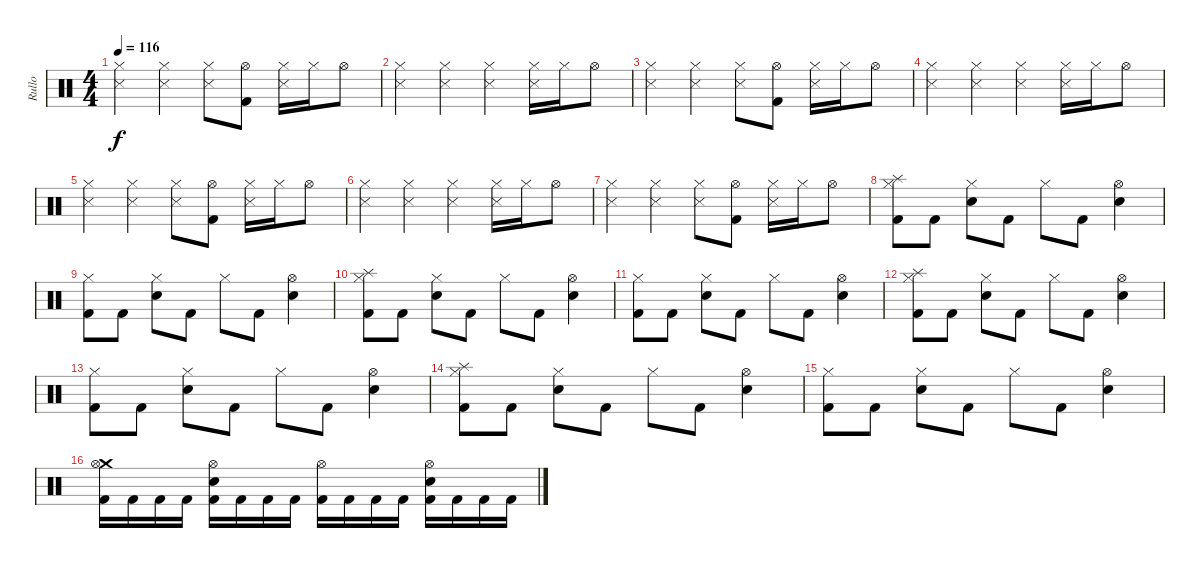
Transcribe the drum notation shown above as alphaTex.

\track ("Rullo" "Rullo") {instrument percussion}
\staff {score}
\articulation defaults
\ts (4 4)
\tempo 116
\clef neutral
\ks c
("Hi-Hat (closed)" "Snare (side stick) 3").4{dy f} ("Hi-Hat (closed)" "Snare (side stick) 3").4 ("Hi-Hat (closed)" "Snare (side stick) 3").8 ("Hi-Hat (open)" "Kick (hit) 2").8 ("Hi-Hat (closed)" "Snare (side stick) 3").16 "Hi-Hat (closed)".16 "Hi-Hat (open)".8 |
("Hi-Hat (closed)" "Snare (side stick) 3").4 ("Hi-Hat (closed)" "Snare (side stick) 3").4 ("Hi-Hat (closed)" "Snare (side stick) 3").4 ("Hi-Hat (closed)" "Snare (side stick) 3").16 "Hi-Hat (closed)".16 "Hi-Hat (open)".8 |
("Hi-Hat (closed)" "Snare (side stick) 3").4 ("Hi-Hat (closed)" "Snare (side stick) 3").4 ("Hi-Hat (closed)" "Snare (side stick) 3").8 ("Hi-Hat (open)" "Kick (hit) 2").8 ("Hi-Hat (closed)" "Snare (side stick) 3").16 "Hi-Hat (closed)".16 "Hi-Hat (open)".8 |
("Hi-Hat (closed)" "Snare (side stick) 3").4 ("Hi-Hat (closed)" "Snare (side stick) 3").4 ("Hi-Hat (closed)" "Snare (side stick) 3").4 ("Hi-Hat (closed)" "Snare (side stick) 3").16 "Hi-Hat (closed)".16 "Hi-Hat (open)".8 |
("Hi-Hat (closed)" "Snare (side stick) 3").4 ("Hi-Hat (closed)" "Snare (side stick) 3").4 ("Hi-Hat (closed)" "Snare (side stick) 3").8 ("Hi-Hat (open)" "Kick (hit) 2").8 ("Hi-Hat (closed)" "Snare (side stick) 3").16 "Hi-Hat (closed)".16 "Hi-Hat (open)".8 |
("Hi-Hat (closed)" "Snare (side stick) 3").4 ("Hi-Hat (closed)" "Snare (side stick) 3").4 ("Hi-Hat (closed)" "Snare (side stick) 3").4 ("Hi-Hat (closed)" "Snare (side stick) 3").16 "Hi-Hat (closed)".16 "Hi-Hat (open)".8 |
("Hi-Hat (closed)" "Snare (side stick) 3").4 ("Hi-Hat (closed)" "Snare (side stick) 3").4 ("Hi-Hat (closed)" "Snare (side stick) 3").8 ("Hi-Hat (open)" "Kick (hit) 2").8 ("Hi-Hat (closed)" "Snare (side stick) 3").16 "Hi-Hat (closed)".16 "Hi-Hat (open)".8 |
("Splash (hit)" "Hi-Hat (closed)" "Kick (hit) 2").8 "Kick (hit) 2".8 ("Hi-Hat (closed)" "Electric Snare (hit)").8 "Kick (hit) 2".8 "Hi-Hat (closed)".8 "Kick (hit) 2".8 ("Hi-Hat (open)" "Electric Snare (hit)").4 |
("Hi-Hat (closed)" "Kick (hit) 2").8 "Kick (hit) 2".8 ("Hi-Hat (closed)" "Electric Snare (hit)").8 "Kick (hit) 2".8 "Hi-Hat (closed)".8 "Kick (hit) 2".8 ("Hi-Hat (open)" "Electric Snare (hit)").4 |
("Splash (hit)" "Hi-Hat (closed)" "Kick (hit) 2").8 "Kick (hit) 2".8 ("Hi-Hat (closed)" "Electric Snare (hit)").8 "Kick (hit) 2".8 "Hi-Hat (closed)".8 "Kick (hit) 2".8 ("Hi-Hat (open)" "Electric Snare (hit)").4 |
("Hi-Hat (closed)" "Kick (hit) 2").8 "Kick (hit) 2".8 ("Hi-Hat (closed)" "Electric Snare (hit)").8 "Kick (hit) 2".8 "Hi-Hat (closed)".8 "Kick (hit) 2".8 ("Hi-Hat (open)" "Electric Snare (hit)").4 |
("Splash (hit)" "Hi-Hat (closed)" "Kick (hit) 2").8 "Kick (hit) 2".8 ("Hi-Hat (closed)" "Electric Snare (hit)").8 "Kick (hit) 2".8 "Hi-Hat (closed)".8 "Kick (hit) 2".8 ("Hi-Hat (open)" "Electric Snare (hit)").4 |
("Hi-Hat (closed)" "Kick (hit) 2").8 "Kick (hit) 2".8 ("Hi-Hat (closed)" "Electric Snare (hit)").8 "Kick (hit) 2".8 "Hi-Hat (closed)".8 "Kick (hit) 2".8 ("Hi-Hat (open)" "Electric Snare (hit)").4 |
("Splash (hit)" "Hi-Hat (closed)" "Kick (hit) 2").8 "Kick (hit) 2".8 ("Hi-Hat (closed)" "Electric Snare (hit)").8 "Kick (hit) 2".8 "Hi-Hat (closed)".8 "Kick (hit) 2".8 ("Hi-Hat (open)" "Electric Snare (hit)").4 |
("Hi-Hat (closed)" "Kick (hit) 2").8 "Kick (hit) 2".8 ("Hi-Hat (closed)" "Electric Snare (hit)").8 "Kick (hit) 2".8 "Hi-Hat (closed)".8 "Kick (hit) 2".8 ("Hi-Hat (open)" "Electric Snare (hit)").4 |
("Crash medium (hit)" "Hi-Hat (open)" "Kick (hit) 2").16 "Kick (hit) 2".16 "Kick (hit) 2".16 "Kick (hit) 2".16 ("Hi-Hat (open)" "Electric Snare (hit)" "Kick (hit) 2").16 "Kick (hit) 2".16 "Kick (hit) 2".16 "Kick (hit) 2".16 ("Hi-Hat (open)" "Kick (hit) 2").16 "Kick (hit) 2".16 "Kick (hit) 2".16 "Kick (hit) 2".16 ("Hi-Hat (open)" "Electric Snare (hit)" "Kick (hit) 2").16 "Kick (hit) 2".16 "Kick (hit) 2".16 "Kick (hit) 2".16
